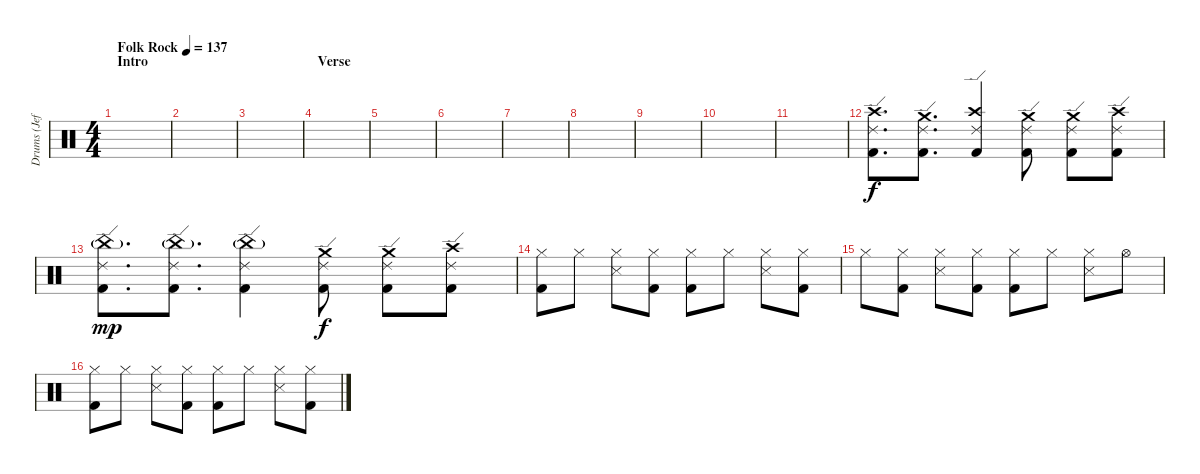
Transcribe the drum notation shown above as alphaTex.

\track ("Drums (Jeff)" "Drums (Jef") {instrument percussion}
\staff {score}
\articulation defaults
\ts (4 4)
\section ("" "Intro")
\tempo (137 "Folk Rock")
\clef neutral
\ks c
|
|
|
\section ("" "Verse")
|
|
|
|
|
|
|
|
("Ride (edge) 2" "Crash high (hit)" "Kick (hit) 2").8{d volume 12} ("Ride (edge) 2" "Crash medium (hit)" "Kick (hit) 2").8{d} ("Ride (edge) 2" "Crash high (hit)" "Kick (hit) 2").4 ("Ride (edge) 2" "Crash medium (hit)" "Kick (hit) 2").8 ("Ride (edge) 2" "Crash medium (hit)" "Kick (hit) 2").8 ("Ride (edge) 2" "Crash high (hit)" "Kick (hit) 2").8 |
("Ride (edge) 2" "China (hit)"{g} "Kick (hit) 2").8{d dy mp} ("Ride (edge) 2" "China (hit)"{g} "Kick (hit) 2").8{d} ("Ride (edge) 2" "China (hit)"{g} "Kick (hit) 2").4 ("Ride (edge) 2" "Crash medium (hit)" "Kick (hit) 2").8{dy f} ("Ride (edge) 2" "Crash medium (hit)" "Kick (hit) 2").8 ("Ride (edge) 2" "Crash high (hit)" "Kick (hit) 2").8 |
("Hi-Hat (closed)" "Kick (hit) 2").8{volume 10} "Hi-Hat (closed)".8 ("Hi-Hat (closed)" "Snare (side stick) 3").8 ("Hi-Hat (closed)" "Kick (hit) 2").8 ("Hi-Hat (closed)" "Kick (hit) 2").8 "Hi-Hat (closed)".8 ("Hi-Hat (closed)" "Snare (side stick) 3").8 ("Hi-Hat (closed)" "Kick (hit) 2").8 |
"Hi-Hat (closed)".8 ("Hi-Hat (closed)" "Kick (hit) 2").8 ("Hi-Hat (closed)" "Snare (side stick) 3").8 ("Hi-Hat (closed)" "Kick (hit) 2").8 ("Hi-Hat (closed)" "Kick (hit) 2").8 "Hi-Hat (closed)".8 ("Hi-Hat (closed)" "Snare (side stick) 3").8 "Hi-Hat (open)".8 |
("Hi-Hat (closed)" "Kick (hit) 2").8 "Hi-Hat (closed)".8 ("Hi-Hat (closed)" "Snare (side stick) 3").8 ("Hi-Hat (closed)" "Kick (hit) 2").8 ("Hi-Hat (closed)" "Kick (hit) 2").8 "Hi-Hat (closed)".8 ("Hi-Hat (closed)" "Snare (side stick) 3").8 ("Hi-Hat (closed)" "Kick (hit) 2").8
